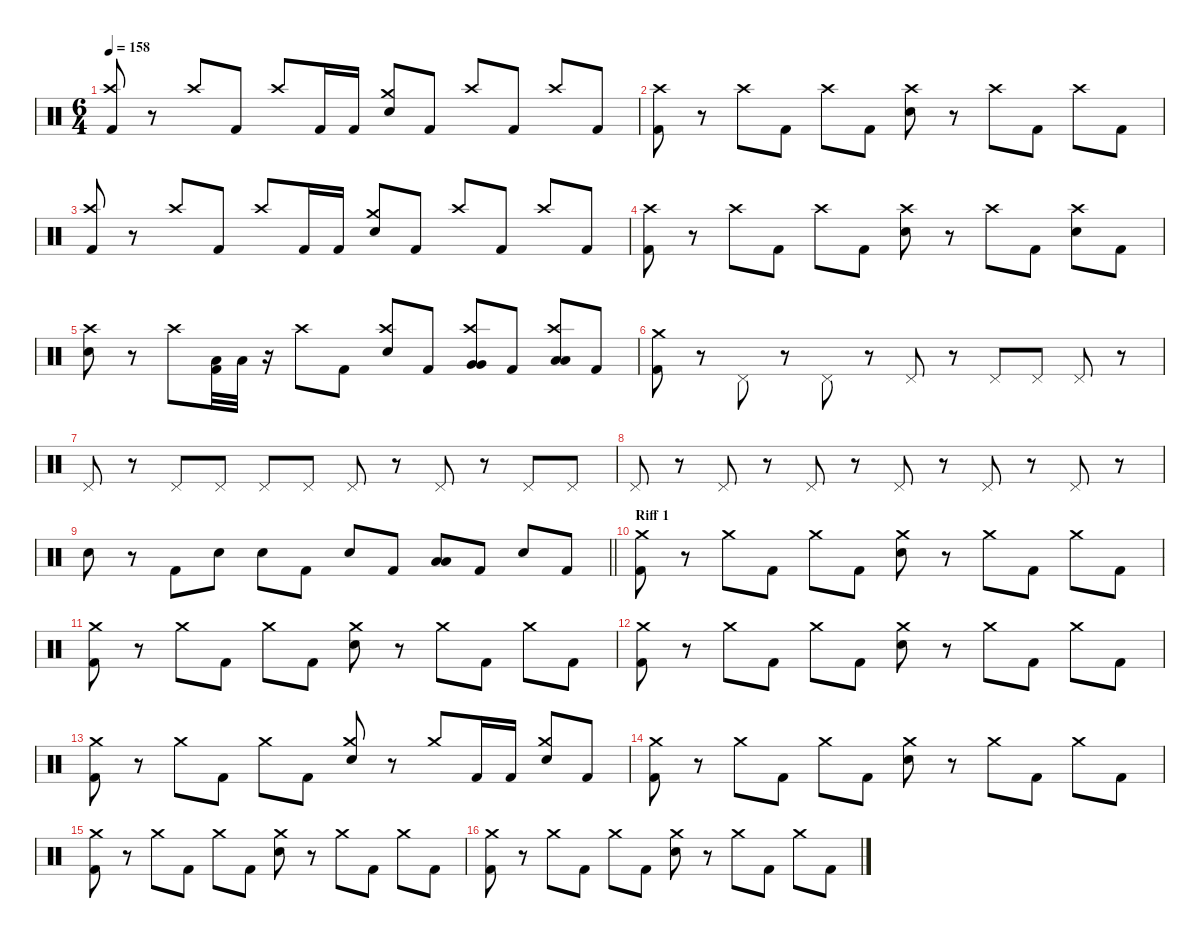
\defaultSystemsLayout 4
\hideDynamics
\bracketExtendMode nobrackets
\singleTrackTrackNamePolicy hidden
\multiTrackTrackNamePolicy hidden
\firstSystemTrackNameMode fullname
\firstSystemTrackNameOrientation horizontal
\otherSystemsTrackNameOrientation horizontal
\track ("Drums" "drm.") {defaultSystemsLayout 4 instrument percussion}
\staff {score}
\articulation defaults
\ts (6 4)
\tempo 158
\clef neutral
\ks c
("Crash high (hit)" "Kick (hit) 2").8{dy f beam Up} r.8{beam Up} "Crash high (hit)".8{beam Up} "Kick (hit) 2".8{beam Up} "Crash high (hit)".8{beam Up} "Kick (hit) 2".16{beam Up} "Kick (hit) 2".16{beam Up} ("Crash medium (hit)" "Snare (hit) 2").8{beam Up} "Kick (hit) 2".8{beam Up} "Crash high (hit)".8{beam Up} "Kick (hit) 2".8{beam Up} "Crash high (hit)".8{beam Up} "Kick (hit) 2".8{beam Up} |
("Crash high (hit)" "Kick (hit) 2").8{beam Down} r.8{beam Down} "Crash high (hit)".8{beam Down} "Kick (hit) 2".8{beam Down} "Crash high (hit)".8{beam Down} "Kick (hit) 2".8{beam Down} ("Crash high (hit)" "Snare (hit) 2").8{beam Down} r.8{beam Down} "Crash high (hit)".8{beam Down} "Kick (hit) 2".8{beam Down} "Crash high (hit)".8{beam Down} "Kick (hit) 2".8{beam Down} |
("Crash high (hit)" "Kick (hit) 2").8{beam Up} r.8{beam Up} "Crash high (hit)".8{beam Up} "Kick (hit) 2".8{beam Up} "Crash high (hit)".8{beam Up} "Kick (hit) 2".16{beam Up} "Kick (hit) 2".16{beam Up} ("Crash medium (hit)" "Snare (hit) 2").8{beam Up} "Kick (hit) 2".8{beam Up} "Crash high (hit)".8{beam Up} "Kick (hit) 2".8{beam Up} "Crash high (hit)".8{beam Up} "Kick (hit) 2".8{beam Up} |
("Crash high (hit)" "Kick (hit) 2").8{beam Down} r.8{beam Down} "Crash high (hit)".8{beam Down} "Kick (hit) 2".8{beam Down} "Crash high (hit)".8{beam Down} "Kick (hit) 2".8{beam Down} ("Crash high (hit)" "Snare (hit) 2").8{beam Down} r.8{beam Down} "Crash high (hit)".8{beam Down} "Kick (hit) 2".8{beam Down} ("Crash high (hit)" "Snare (hit) 2").8{beam Down} "Kick (hit) 2".8{beam Down} |
("Crash high (hit)" "Snare (hit) 2").8{beam Down} r.8{beam Down} "Crash high (hit)".8{beam Down} ("Low Tom (hit)" "Kick (hit) 2").32{beam Down} "Low Tom (hit)".32{beam Down} r.16{beam Down} "Crash high (hit)".8{beam Down} "Kick (hit) 2".8{beam Down} ("Crash high (hit)" "Snare (hit) 2").8{beam Up} "Kick (hit) 2".8{beam Up} ("Crash high (hit)" "Very Low Tom (hit)" "Very Low Tom (hit)").8{beam Up} "Kick (hit) 2".8{beam Up} ("Crash high (hit)" "Low Floor Tom (hit)" "Low Floor Tom (hit)").8{beam Up} "Kick (hit) 2".8{beam Up} |
("Crash medium (hit)" "Kick (hit) 2").8{beam Down} r.8{beam Down} "Pedal Hi-Hat (hit)".8{beam Down} r.8{beam Down} "Pedal Hi-Hat (hit)".8{beam Down} r.8{beam Down} "Pedal Hi-Hat (hit)".8{beam Up} r.8{beam Up} "Pedal Hi-Hat (hit)".8{beam Up} "Pedal Hi-Hat (hit)".8{beam Up} "Pedal Hi-Hat (hit)".8{beam Up} r.8{beam Up} |
"Pedal Hi-Hat (hit)".8{beam Up} r.8{beam Up} "Pedal Hi-Hat (hit)".8{beam Up} "Pedal Hi-Hat (hit)".8{beam Up} "Pedal Hi-Hat (hit)".8{beam Up} "Pedal Hi-Hat (hit)".8{beam Up} "Pedal Hi-Hat (hit)".8{beam Up} r.8{beam Up} "Pedal Hi-Hat (hit)".8{beam Up} r.8{beam Up} "Pedal Hi-Hat (hit)".8{beam Up} "Pedal Hi-Hat (hit)".8{beam Up} |
"Pedal Hi-Hat (hit)".8{beam Up} r.8{beam Up} "Pedal Hi-Hat (hit)".8{beam Up} r.8{beam Up} "Pedal Hi-Hat (hit)".8{beam Up} r.8{beam Up} "Pedal Hi-Hat (hit)".8{beam Up} r.8{beam Up} "Pedal Hi-Hat (hit)".8{beam Up} r.8{beam Up} "Pedal Hi-Hat (hit)".8{beam Up} r.8{beam Up} |
\barLineRight lightlight "Snare (hit) 2".8{beam Down}
r.8{beam Down} "Kick (hit) 2".8{beam Down} "Snare (hit) 2".8{beam Down} "Snare (hit) 2".8{beam Down} "Kick (hit) 2".8{beam Down} "Snare (hit) 2".8{beam Up} "Kick (hit) 2".8{beam Up} ("Low Tom (hit)" "Low Tom (hit)").8{beam Up} "Kick (hit) 2".8{beam Up} "Snare (hit) 2".8{beam Up} "Kick (hit) 2".8{beam Up} |
\section ("" "Riff 1")
("Crash medium (hit)" "Kick (hit) 2").8{beam Down} r.8{beam Down} "Crash medium (hit)".8{beam Down} "Kick (hit) 2".8{beam Down} "Crash medium (hit)".8{beam Down} "Kick (hit) 2".8{beam Down} ("Crash medium (hit)" "Snare (hit) 2").8{beam Down} r.8{beam Down} "Crash medium (hit)".8{beam Down} "Kick (hit) 2".8{beam Down} "Crash medium (hit)".8{beam Down} "Kick (hit) 2".8{beam Down} |
("Crash medium (hit)" "Kick (hit) 2").8{beam Down} r.8{beam Down} "Crash medium (hit)".8{beam Down} "Kick (hit) 2".8{beam Down} "Crash medium (hit)".8{beam Down} "Kick (hit) 2".8{beam Down} ("Crash medium (hit)" "Snare (hit) 2").8{beam Down} r.8{beam Down} "Crash medium (hit)".8{beam Down} "Kick (hit) 2".8{beam Down} "Crash medium (hit)".8{beam Down} "Kick (hit) 2".8{beam Down} |
("Crash medium (hit)" "Kick (hit) 2").8{beam Down} r.8{beam Down} "Crash medium (hit)".8{beam Down} "Kick (hit) 2".8{beam Down} "Crash medium (hit)".8{beam Down} "Kick (hit) 2".8{beam Down} ("Crash medium (hit)" "Snare (hit) 2").8{beam Down} r.8{beam Down} "Crash medium (hit)".8{beam Down} "Kick (hit) 2".8{beam Down} "Crash medium (hit)".8{beam Down} "Kick (hit) 2".8{beam Down} |
("Crash medium (hit)" "Kick (hit) 2").8{beam Down} r.8{beam Down} "Crash medium (hit)".8{beam Down} "Kick (hit) 2".8{beam Down} "Crash medium (hit)".8{beam Down} "Kick (hit) 2".8{beam Down} ("Crash medium (hit)" "Snare (hit) 2").8{beam Up} r.8{beam Up} "Crash medium (hit)".8{beam Up} "Kick (hit) 2".16{beam Up} "Kick (hit) 2".16{beam Up} ("Crash medium (hit)" "Snare (hit) 2").8{beam Up} "Kick (hit) 2".8{beam Up} |
("Crash medium (hit)" "Kick (hit) 2").8{beam Down} r.8{beam Down} "Crash medium (hit)".8{beam Down} "Kick (hit) 2".8{beam Down} "Crash medium (hit)".8{beam Down} "Kick (hit) 2".8{beam Down} ("Crash medium (hit)" "Snare (hit) 2").8{beam Down} r.8{beam Down} "Crash medium (hit)".8{beam Down} "Kick (hit) 2".8{beam Down} "Crash medium (hit)".8{beam Down} "Kick (hit) 2".8{beam Down} |
("Crash medium (hit)" "Kick (hit) 2").8{beam Down} r.8{beam Down} "Crash medium (hit)".8{beam Down} "Kick (hit) 2".8{beam Down} "Crash medium (hit)".8{beam Down} "Kick (hit) 2".8{beam Down} ("Crash medium (hit)" "Snare (hit) 2").8{beam Down} r.8{beam Down} "Crash medium (hit)".8{beam Down} "Kick (hit) 2".8{beam Down} "Crash medium (hit)".8{beam Down} "Kick (hit) 2".8{beam Down} |
("Crash medium (hit)" "Kick (hit) 2").8{beam Down} r.8{beam Down} "Crash medium (hit)".8{beam Down} "Kick (hit) 2".8{beam Down} "Crash medium (hit)".8{beam Down} "Kick (hit) 2".8{beam Down} ("Crash medium (hit)" "Snare (hit) 2").8{beam Down} r.8{beam Down} "Crash medium (hit)".8{beam Down} "Kick (hit) 2".8{beam Down} "Crash medium (hit)".8{beam Down} "Kick (hit) 2".8{beam Down}
